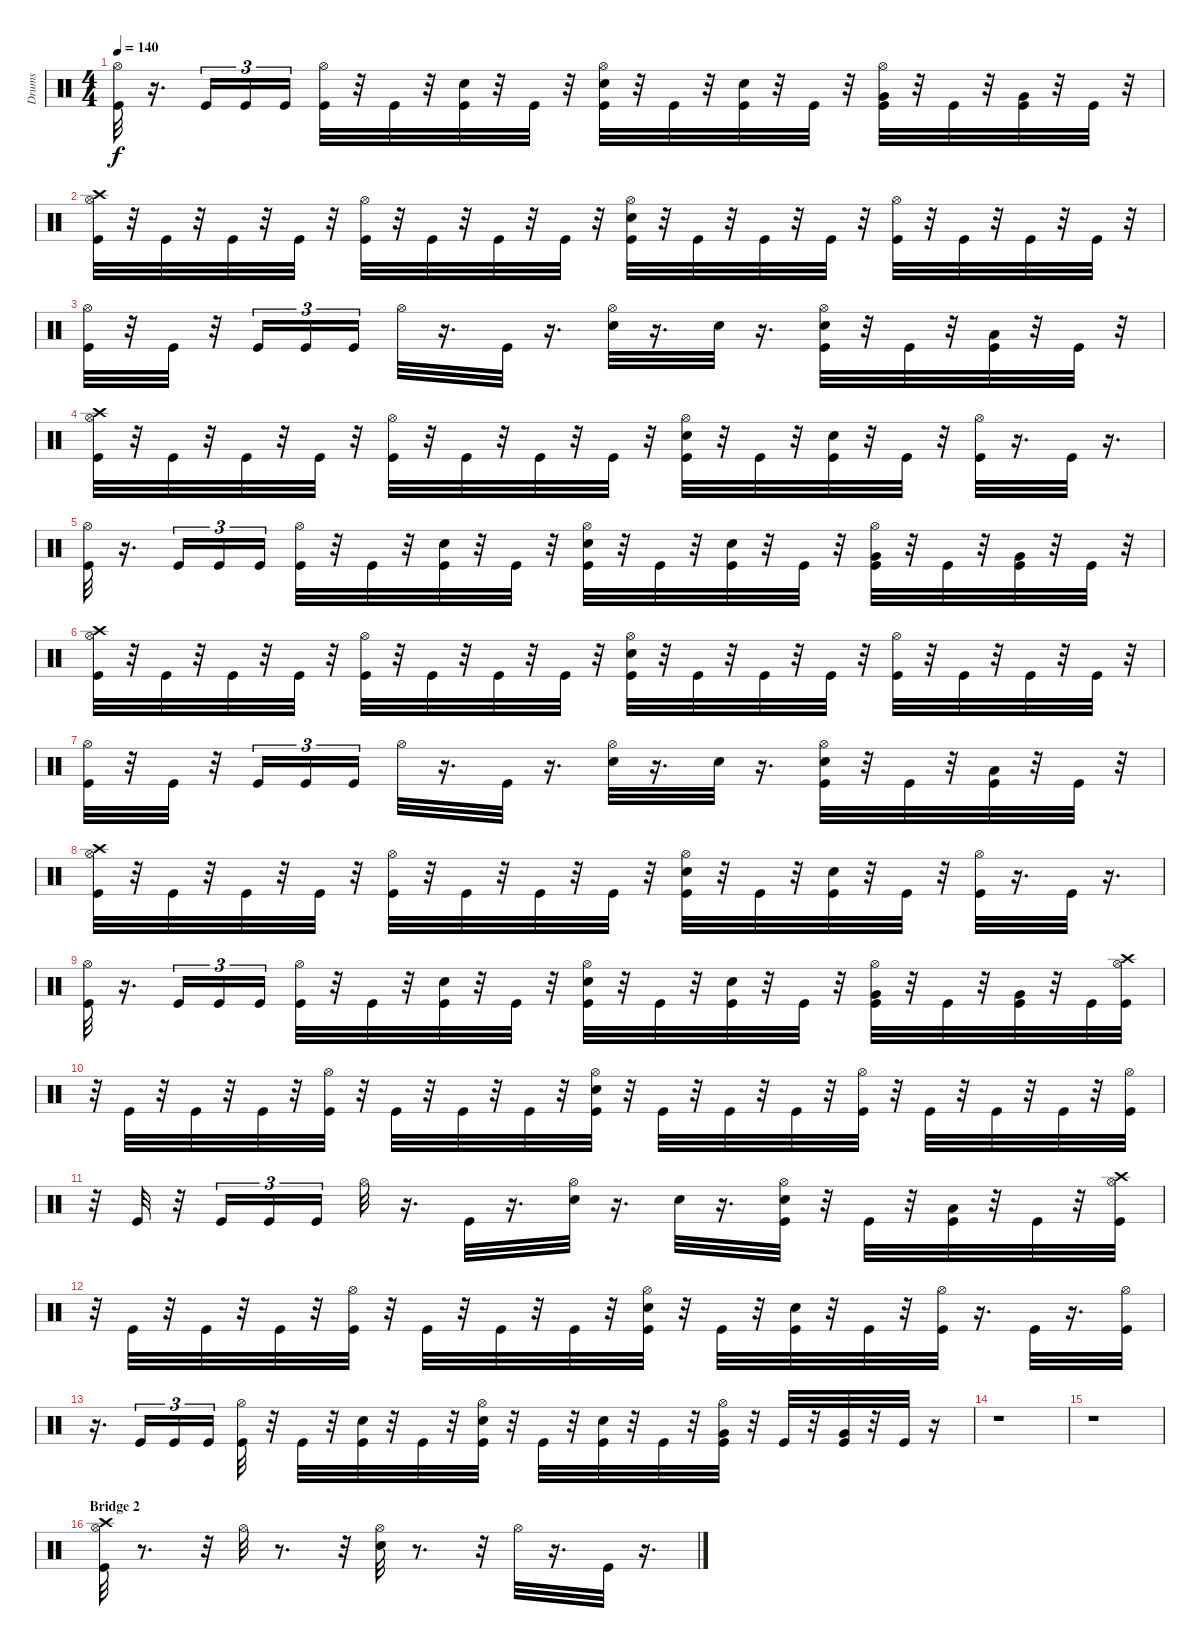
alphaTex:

\track ("Drums" "Drums") {instrument percussion}
\staff {score}
\articulation defaults
\ts (4 4)
\tempo 140
\clef neutral
\ks c
("Hi-Hat (open)" "Kick (hit)").32{dy f} r.16{d} "Kick (hit)".16{tu (3 2)} "Kick (hit)".16{tu (3 2)} "Kick (hit)".16{tu (3 2)} ("Kick (hit)" "Hi-Hat (open)").32 r.32 "Kick (hit)".32 r.32 ("Kick (hit)" "Electric Snare (hit)").32 r.32 "Kick (hit)".32 r.32 ("Hi-Hat (open)" "Electric Snare (hit)" "Kick (hit)").32 r.32 "Kick (hit)".32 r.32 ("Kick (hit)" "Electric Snare (hit)").32 r.32 "Kick (hit)".32 r.32 ("Kick (hit)" "Hi-Hat (open)" "Very Low Tom (hit)").32 r.32 "Kick (hit)".32 r.32 ("Kick (hit)" "Very Low Tom (hit)").32 r.32 "Kick (hit)".32 r.32 |
("Hi-Hat (open)" "Crash high (hit)" "Kick (hit)").32 r.32 "Kick (hit)".32 r.32 "Kick (hit)".32 r.32 "Kick (hit)".32 r.32 ("Hi-Hat (open)" "Kick (hit)").32 r.32 "Kick (hit)".32 r.32 "Kick (hit)".32 r.32 "Kick (hit)".32 r.32 ("Kick (hit)" "Hi-Hat (open)" "Electric Snare (hit)").32 r.32 "Kick (hit)".32 r.32 "Kick (hit)".32 r.32 "Kick (hit)".32 r.32 ("Kick (hit)" "Hi-Hat (open)").32 r.32 "Kick (hit)".32 r.32 "Kick (hit)".32 r.32 "Kick (hit)".32 r.32 |
("Hi-Hat (open)" "Kick (hit)").32 r.32 "Kick (hit)".32 r.32 "Kick (hit)".16{tu (3 2)} "Kick (hit)".16{tu (3 2)} "Kick (hit)".16{tu (3 2)} "Hi-Hat (open)".32 r.16{d} "Kick (hit)".32 r.16{d} ("Hi-Hat (open)" "Electric Snare (hit)").32 r.16{d} "Electric Snare (hit)".32 r.16{d} ("Electric Snare (hit)" "Hi-Hat (open)" "Kick (hit)").32 r.32 "Kick (hit)".32 r.32 ("Low Floor Tom (hit)" "Kick (hit)").32 r.32 "Kick (hit)".32 r.32 |
("Crash high (hit)" "Hi-Hat (open)" "Kick (hit)").32 r.32 "Kick (hit)".32 r.32 "Kick (hit)".32 r.32 "Kick (hit)".32 r.32 ("Kick (hit)" "Hi-Hat (open)").32 r.32 "Kick (hit)".32 r.32 "Kick (hit)".32 r.32 "Kick (hit)".32 r.32 ("Kick (hit)" "Hi-Hat (open)" "Electric Snare (hit)").32 r.32 "Kick (hit)".32 r.32 ("Electric Snare (hit)" "Kick (hit)").32 r.32 "Kick (hit)".32 r.32 ("Hi-Hat (open)" "Kick (hit)").32 r.16{d} "Kick (hit)".32 r.16{d} |
("Hi-Hat (open)" "Kick (hit)").32 r.16{d} "Kick (hit)".16{tu (3 2)} "Kick (hit)".16{tu (3 2)} "Kick (hit)".16{tu (3 2)} ("Kick (hit)" "Hi-Hat (open)").32 r.32 "Kick (hit)".32 r.32 ("Kick (hit)" "Electric Snare (hit)").32 r.32 "Kick (hit)".32 r.32 ("Hi-Hat (open)" "Electric Snare (hit)" "Kick (hit)").32 r.32 "Kick (hit)".32 r.32 ("Kick (hit)" "Electric Snare (hit)").32 r.32 "Kick (hit)".32 r.32 ("Kick (hit)" "Hi-Hat (open)" "Very Low Tom (hit)").32 r.32 "Kick (hit)".32 r.32 ("Kick (hit)" "Very Low Tom (hit)").32 r.32 "Kick (hit)".32 r.32 |
("Hi-Hat (open)" "Crash high (hit)" "Kick (hit)").32 r.32 "Kick (hit)".32 r.32 "Kick (hit)".32 r.32 "Kick (hit)".32 r.32 ("Hi-Hat (open)" "Kick (hit)").32 r.32 "Kick (hit)".32 r.32 "Kick (hit)".32 r.32 "Kick (hit)".32 r.32 ("Kick (hit)" "Hi-Hat (open)" "Electric Snare (hit)").32 r.32 "Kick (hit)".32 r.32 "Kick (hit)".32 r.32 "Kick (hit)".32 r.32 ("Kick (hit)" "Hi-Hat (open)").32 r.32 "Kick (hit)".32 r.32 "Kick (hit)".32 r.32 "Kick (hit)".32 r.32 |
("Hi-Hat (open)" "Kick (hit)").32 r.32 "Kick (hit)".32 r.32 "Kick (hit)".16{tu (3 2)} "Kick (hit)".16{tu (3 2)} "Kick (hit)".16{tu (3 2)} "Hi-Hat (open)".32 r.16{d} "Kick (hit)".32 r.16{d} ("Hi-Hat (open)" "Electric Snare (hit)").32 r.16{d} "Electric Snare (hit)".32 r.16{d} ("Electric Snare (hit)" "Hi-Hat (open)" "Kick (hit)").32 r.32 "Kick (hit)".32 r.32 ("Low Floor Tom (hit)" "Kick (hit)").32 r.32 "Kick (hit)".32 r.32 |
("Crash high (hit)" "Hi-Hat (open)" "Kick (hit)").32 r.32 "Kick (hit)".32 r.32 "Kick (hit)".32 r.32 "Kick (hit)".32 r.32 ("Kick (hit)" "Hi-Hat (open)").32 r.32 "Kick (hit)".32 r.32 "Kick (hit)".32 r.32 "Kick (hit)".32 r.32 ("Kick (hit)" "Hi-Hat (open)" "Electric Snare (hit)").32 r.32 "Kick (hit)".32 r.32 ("Electric Snare (hit)" "Kick (hit)").32 r.32 "Kick (hit)".32 r.32 ("Hi-Hat (open)" "Kick (hit)").32 r.16{d} "Kick (hit)".32 r.16{d} |
("Hi-Hat (open)" "Kick (hit)").32 r.16{d} "Kick (hit)".16{tu (3 2)} "Kick (hit)".16{tu (3 2)} "Kick (hit)".16{tu (3 2)} ("Kick (hit)" "Hi-Hat (open)").32 r.32 "Kick (hit)".32 r.32 ("Kick (hit)" "Electric Snare (hit)").32 r.32 "Kick (hit)".32 r.32 ("Hi-Hat (open)" "Electric Snare (hit)" "Kick (hit)").32 r.32 "Kick (hit)".32 r.32 ("Kick (hit)" "Electric Snare (hit)").32 r.32 "Kick (hit)".32 r.32 ("Kick (hit)" "Hi-Hat (open)" "Very Low Tom (hit)").32 r.32 "Kick (hit)".32 r.32 ("Kick (hit)" "Very Low Tom (hit)").32 r.32 "Kick (hit)".32 ("Hi-Hat (open)" "Crash high (hit)" "Kick (hit)").32 |
r.32 "Kick (hit)".32 r.32 "Kick (hit)".32 r.32 "Kick (hit)".32 r.32 ("Hi-Hat (open)" "Kick (hit)").32 r.32 "Kick (hit)".32 r.32 "Kick (hit)".32 r.32 "Kick (hit)".32 r.32 ("Kick (hit)" "Hi-Hat (open)" "Electric Snare (hit)").32 r.32 "Kick (hit)".32 r.32 "Kick (hit)".32 r.32 "Kick (hit)".32 r.32 ("Kick (hit)" "Hi-Hat (open)").32 r.32 "Kick (hit)".32 r.32 "Kick (hit)".32 r.32 "Kick (hit)".32 r.32 ("Hi-Hat (open)" "Kick (hit)").32 |
r.32 "Kick (hit)".32 r.32 "Kick (hit)".16{tu (3 2)} "Kick (hit)".16{tu (3 2)} "Kick (hit)".16{tu (3 2)} "Hi-Hat (open)".32 r.16{d} "Kick (hit)".32 r.16{d} ("Hi-Hat (open)" "Electric Snare (hit)").32 r.16{d} "Electric Snare (hit)".32 r.16{d} ("Electric Snare (hit)" "Hi-Hat (open)" "Kick (hit)").32 r.32 "Kick (hit)".32 r.32 ("Low Floor Tom (hit)" "Kick (hit)").32 r.32 "Kick (hit)".32 r.32 ("Crash high (hit)" "Hi-Hat (open)" "Kick (hit)").32 |
r.32 "Kick (hit)".32 r.32 "Kick (hit)".32 r.32 "Kick (hit)".32 r.32 ("Kick (hit)" "Hi-Hat (open)").32 r.32 "Kick (hit)".32 r.32 "Kick (hit)".32 r.32 "Kick (hit)".32 r.32 ("Kick (hit)" "Hi-Hat (open)" "Electric Snare (hit)").32 r.32 "Kick (hit)".32 r.32 ("Electric Snare (hit)" "Kick (hit)").32 r.32 "Kick (hit)".32 r.32 ("Hi-Hat (open)" "Kick (hit)").32 r.16{d} "Kick (hit)".32 r.16{d} ("Hi-Hat (open)" "Kick (hit)").32 |
r.16{d} "Kick (hit)".16{tu (3 2)} "Kick (hit)".16{tu (3 2)} "Kick (hit)".16{tu (3 2)} ("Kick (hit)" "Hi-Hat (open)").32 r.32 "Kick (hit)".32 r.32 ("Kick (hit)" "Electric Snare (hit)").32 r.32 "Kick (hit)".32 r.32 ("Hi-Hat (open)" "Electric Snare (hit)" "Kick (hit)").32 r.32 "Kick (hit)".32 r.32 ("Kick (hit)" "Electric Snare (hit)").32 r.32 "Kick (hit)".32 r.32 ("Kick (hit)" "Hi-Hat (open)" "Very Low Tom (hit)").32 r.32 "Kick (hit)".32 r.32 ("Kick (hit)" "Very Low Tom (hit)").32 r.32 "Kick (hit)".32 r.16 |
r.1 |
r.1 |
\section ("" "Bridge 2")
("Hi-Hat (open)" "Crash high (hit)" "Kick (hit)").32 r.8{d} r.32 "Hi-Hat (open)".32 r.8{d} r.32 ("Hi-Hat (open)" "Electric Snare (hit)").32 r.8{d} r.32 "Hi-Hat (open)".32 r.16{d} "Kick (hit)".32 r.16{d}
